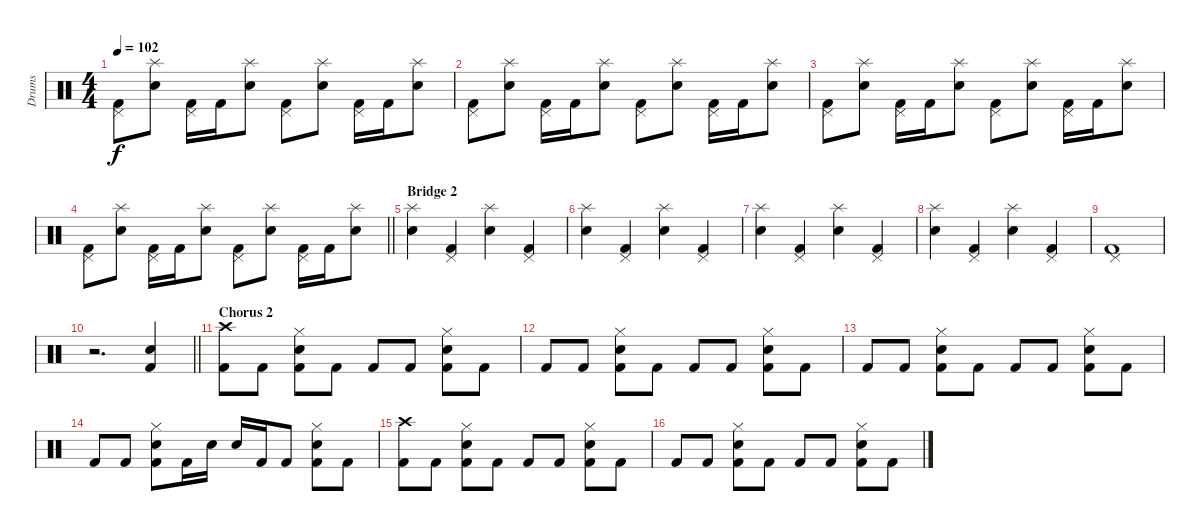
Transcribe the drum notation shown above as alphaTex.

\track ("Drums" "Drums") {instrument percussion}
\staff {score}
\articulation defaults
\ts (4 4)
\tempo 102
\clef neutral
\ks c
("Pedal Hi-Hat (hit)" "Kick (hit) 2").8{dy f} ("Splash (hit)" "Electric Snare (hit)").8 ("Pedal Hi-Hat (hit)" "Kick (hit) 2").16 "Kick (hit) 2".16 ("Splash (hit)" "Electric Snare (hit)").8 ("Pedal Hi-Hat (hit)" "Kick (hit) 2").8 ("Splash (hit)" "Electric Snare (hit)").8 ("Pedal Hi-Hat (hit)" "Kick (hit) 2").16 "Kick (hit) 2".16 ("Splash (hit)" "Electric Snare (hit)").8 |
("Pedal Hi-Hat (hit)" "Kick (hit) 2").8 ("Splash (hit)" "Electric Snare (hit)").8 ("Pedal Hi-Hat (hit)" "Kick (hit) 2").16 "Kick (hit) 2".16 ("Splash (hit)" "Electric Snare (hit)").8 ("Pedal Hi-Hat (hit)" "Kick (hit) 2").8 ("Splash (hit)" "Electric Snare (hit)").8 ("Pedal Hi-Hat (hit)" "Kick (hit) 2").16 "Kick (hit) 2".16 ("Splash (hit)" "Electric Snare (hit)").8 |
("Pedal Hi-Hat (hit)" "Kick (hit) 2").8 ("Splash (hit)" "Electric Snare (hit)").8 ("Pedal Hi-Hat (hit)" "Kick (hit) 2").16 "Kick (hit) 2".16 ("Splash (hit)" "Electric Snare (hit)").8 ("Pedal Hi-Hat (hit)" "Kick (hit) 2").8 ("Splash (hit)" "Electric Snare (hit)").8 ("Pedal Hi-Hat (hit)" "Kick (hit) 2").16 "Kick (hit) 2".16 ("Splash (hit)" "Electric Snare (hit)").8 |
\barLineRight lightlight
("Pedal Hi-Hat (hit)" "Kick (hit) 2").8 ("Splash (hit)" "Electric Snare (hit)").8 ("Pedal Hi-Hat (hit)" "Kick (hit) 2").16 "Kick (hit) 2".16 ("Splash (hit)" "Electric Snare (hit)").8 ("Pedal Hi-Hat (hit)" "Kick (hit) 2").8 ("Splash (hit)" "Electric Snare (hit)").8 ("Pedal Hi-Hat (hit)" "Kick (hit) 2").16 "Kick (hit) 2".16 ("Splash (hit)" "Electric Snare (hit)").8 |
\section ("" "Bridge 2")
("Splash (hit)" "Electric Snare (hit)").4 ("Pedal Hi-Hat (hit)" "Kick (hit) 2").4 ("Splash (hit)" "Electric Snare (hit)").4 ("Pedal Hi-Hat (hit)" "Kick (hit) 2").4 |
("Splash (hit)" "Electric Snare (hit)").4 ("Pedal Hi-Hat (hit)" "Kick (hit) 2").4 ("Splash (hit)" "Electric Snare (hit)").4 ("Pedal Hi-Hat (hit)" "Kick (hit) 2").4 |
("Splash (hit)" "Electric Snare (hit)").4 ("Pedal Hi-Hat (hit)" "Kick (hit) 2").4 ("Splash (hit)" "Electric Snare (hit)").4 ("Pedal Hi-Hat (hit)" "Kick (hit) 2").4 |
("Splash (hit)" "Electric Snare (hit)").4 ("Pedal Hi-Hat (hit)" "Kick (hit) 2").4 ("Splash (hit)" "Electric Snare (hit)").4 ("Pedal Hi-Hat (hit)" "Kick (hit) 2").4 |
("Pedal Hi-Hat (hit)" "Kick (hit) 2").1 |
\barLineRight lightlight
r.2{d} ("Kick (hit) 2" "Snare (hit) 2").4 |
\section ("" "Chorus 2")
("Crash high (hit)" "Kick (hit) 2").8 "Kick (hit) 2".8 ("Hi-Hat (closed)" "Snare (hit) 2" "Kick (hit) 2").8 "Kick (hit) 2".8 "Kick (hit) 2".8 "Kick (hit) 2".8 ("Hi-Hat (closed)" "Snare (hit) 2" "Kick (hit) 2").8 "Kick (hit) 2".8 |
"Kick (hit) 2".8 "Kick (hit) 2".8 ("Hi-Hat (closed)" "Snare (hit) 2" "Kick (hit) 2").8 "Kick (hit) 2".8 "Kick (hit) 2".8 "Kick (hit) 2".8 ("Hi-Hat (closed)" "Snare (hit) 2" "Kick (hit) 2").8 "Kick (hit) 2".8 |
"Kick (hit) 2".8 "Kick (hit) 2".8 ("Hi-Hat (closed)" "Snare (hit) 2" "Kick (hit) 2").8 "Kick (hit) 2".8 "Kick (hit) 2".8 "Kick (hit) 2".8 ("Hi-Hat (closed)" "Snare (hit) 2" "Kick (hit) 2").8 "Kick (hit) 2".8 |
"Kick (hit) 2".8 "Kick (hit) 2".8 ("Hi-Hat (closed)" "Snare (hit) 2" "Kick (hit) 2").8 "Kick (hit) 2".16 "Snare (hit) 2".16 "Snare (hit) 2".16 "Kick (hit) 2".16 "Kick (hit) 2".8 ("Hi-Hat (closed)" "Snare (hit) 2" "Kick (hit) 2").8 "Kick (hit) 2".8 |
("Crash high (hit)" "Kick (hit) 2").8 "Kick (hit) 2".8 ("Hi-Hat (closed)" "Snare (hit) 2" "Kick (hit) 2").8 "Kick (hit) 2".8 "Kick (hit) 2".8 "Kick (hit) 2".8 ("Hi-Hat (closed)" "Snare (hit) 2" "Kick (hit) 2").8 "Kick (hit) 2".8 |
"Kick (hit) 2".8 "Kick (hit) 2".8 ("Hi-Hat (closed)" "Snare (hit) 2" "Kick (hit) 2").8 "Kick (hit) 2".8 "Kick (hit) 2".8 "Kick (hit) 2".8 ("Hi-Hat (closed)" "Snare (hit) 2" "Kick (hit) 2").8 "Kick (hit) 2".8
